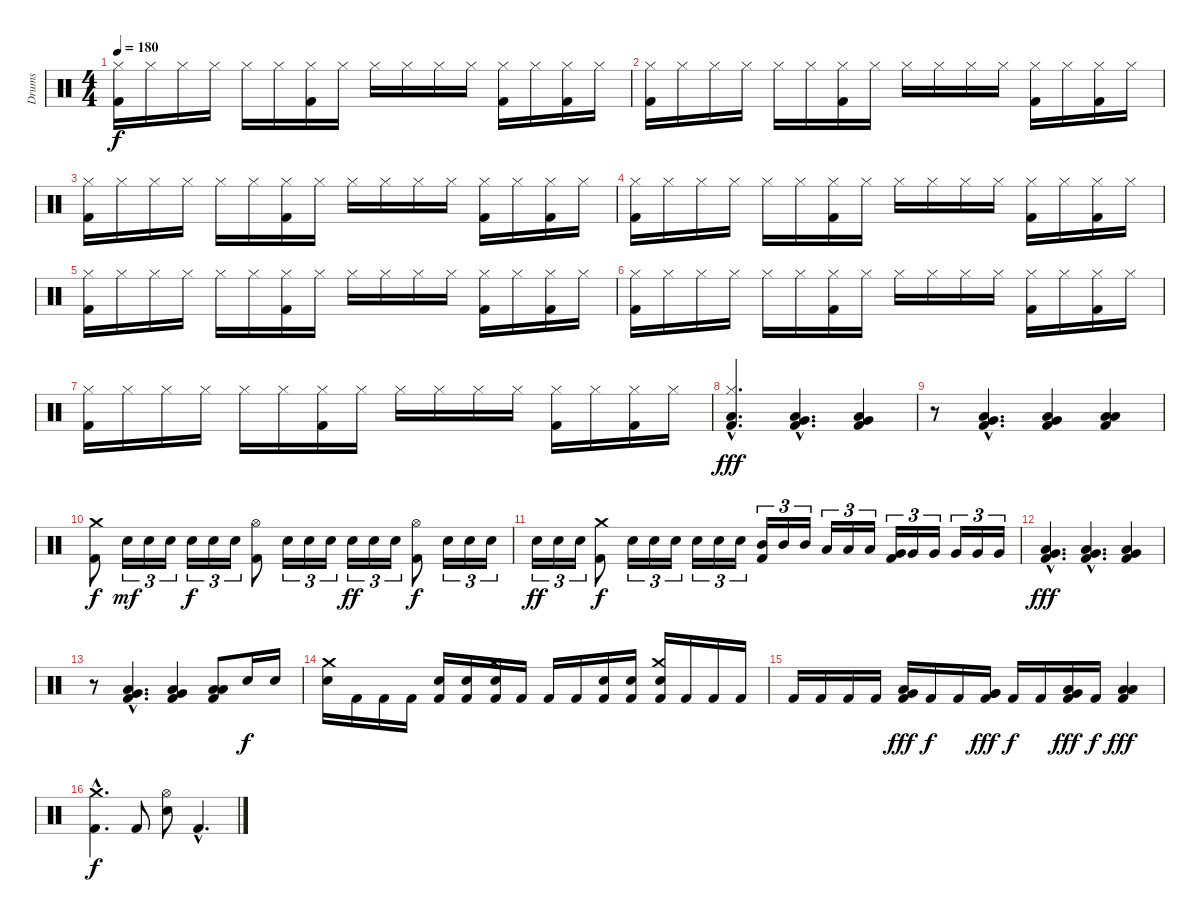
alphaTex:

\track ("Drums" "Drums") {instrument percussion}
\staff {score}
\articulation defaults
\ts (4 4)
\tempo 180
\clef neutral
\ks c
("Kick (hit) 2" "Hi-Hat (closed)").16{dy f} "Hi-Hat (closed)".16 "Hi-Hat (closed)".16 "Hi-Hat (closed)".16 "Hi-Hat (closed)".16 "Hi-Hat (closed)".16 ("Kick (hit) 2" "Hi-Hat (closed)").16 "Hi-Hat (closed)".16 "Hi-Hat (closed)".16 "Hi-Hat (closed)".16 "Hi-Hat (closed)".16 "Hi-Hat (closed)".16 ("Kick (hit) 2" "Hi-Hat (closed)").16 "Hi-Hat (closed)".16 ("Kick (hit) 2" "Hi-Hat (closed)").16 "Hi-Hat (closed)".16 |
("Kick (hit) 2" "Hi-Hat (closed)").16 "Hi-Hat (closed)".16 "Hi-Hat (closed)".16 "Hi-Hat (closed)".16 "Hi-Hat (closed)".16 "Hi-Hat (closed)".16 ("Kick (hit) 2" "Hi-Hat (closed)").16 "Hi-Hat (closed)".16 "Hi-Hat (closed)".16 "Hi-Hat (closed)".16 "Hi-Hat (closed)".16 "Hi-Hat (closed)".16 ("Kick (hit) 2" "Hi-Hat (closed)").16 "Hi-Hat (closed)".16 ("Kick (hit) 2" "Hi-Hat (closed)").16 "Hi-Hat (closed)".16 |
("Kick (hit) 2" "Hi-Hat (closed)").16 "Hi-Hat (closed)".16 "Hi-Hat (closed)".16 "Hi-Hat (closed)".16 "Hi-Hat (closed)".16 "Hi-Hat (closed)".16 ("Kick (hit) 2" "Hi-Hat (closed)").16 "Hi-Hat (closed)".16 "Hi-Hat (closed)".16 "Hi-Hat (closed)".16 "Hi-Hat (closed)".16 "Hi-Hat (closed)".16 ("Kick (hit) 2" "Hi-Hat (closed)").16 "Hi-Hat (closed)".16 ("Kick (hit) 2" "Hi-Hat (closed)").16 "Hi-Hat (closed)".16 |
("Kick (hit) 2" "Hi-Hat (closed)").16 "Hi-Hat (closed)".16 "Hi-Hat (closed)".16 "Hi-Hat (closed)".16 "Hi-Hat (closed)".16 "Hi-Hat (closed)".16 ("Kick (hit) 2" "Hi-Hat (closed)").16 "Hi-Hat (closed)".16 "Hi-Hat (closed)".16 "Hi-Hat (closed)".16 "Hi-Hat (closed)".16 "Hi-Hat (closed)".16 ("Kick (hit) 2" "Hi-Hat (closed)").16 "Hi-Hat (closed)".16 ("Kick (hit) 2" "Hi-Hat (closed)").16 "Hi-Hat (closed)".16 |
("Kick (hit) 2" "Hi-Hat (closed)").16 "Hi-Hat (closed)".16 "Hi-Hat (closed)".16 "Hi-Hat (closed)".16 "Hi-Hat (closed)".16 "Hi-Hat (closed)".16 ("Kick (hit) 2" "Hi-Hat (closed)").16 "Hi-Hat (closed)".16 "Hi-Hat (closed)".16 "Hi-Hat (closed)".16 "Hi-Hat (closed)".16 "Hi-Hat (closed)".16 ("Kick (hit) 2" "Hi-Hat (closed)").16 "Hi-Hat (closed)".16 ("Kick (hit) 2" "Hi-Hat (closed)").16 "Hi-Hat (closed)".16 |
("Kick (hit) 2" "Hi-Hat (closed)").16 "Hi-Hat (closed)".16 "Hi-Hat (closed)".16 "Hi-Hat (closed)".16 "Hi-Hat (closed)".16 "Hi-Hat (closed)".16 ("Kick (hit) 2" "Hi-Hat (closed)").16 "Hi-Hat (closed)".16 "Hi-Hat (closed)".16 "Hi-Hat (closed)".16 "Hi-Hat (closed)".16 "Hi-Hat (closed)".16 ("Kick (hit) 2" "Hi-Hat (closed)").16 "Hi-Hat (closed)".16 ("Kick (hit) 2" "Hi-Hat (closed)").16 "Hi-Hat (closed)".16 |
("Kick (hit) 2" "Hi-Hat (closed)").16 "Hi-Hat (closed)".16 "Hi-Hat (closed)".16 "Hi-Hat (closed)".16 "Hi-Hat (closed)".16 "Hi-Hat (closed)".16 ("Kick (hit) 2" "Hi-Hat (closed)").16 "Hi-Hat (closed)".16 "Hi-Hat (closed)".16 "Hi-Hat (closed)".16 "Hi-Hat (closed)".16 "Hi-Hat (closed)".16 ("Kick (hit) 2" "Hi-Hat (closed)").16 "Hi-Hat (closed)".16 ("Kick (hit) 2" "Hi-Hat (closed)").16 "Hi-Hat (closed)".16 |
("Hi-Hat (closed)"{hac} "Kick (hit) 2"{hac} "Low Floor Tom (hit)"{hac}).4{d dy fff} ("Kick (hit) 2"{hac} "Low Floor Tom (hit)"{hac} "Very Low Tom (hit)"{hac}).4{d} ("Kick (hit) 2" "Low Floor Tom (hit)" "Very Low Tom (hit)").4 |
r.8 ("Kick (hit) 2"{hac} "Low Floor Tom (hit)"{hac} "Very Low Tom (hit)"{hac}).4{d} ("Kick (hit) 2" "Low Floor Tom (hit)" "Very Low Tom (hit)").4 ("Kick (hit) 2" "Low Floor Tom (hit)" "Low Tom (hit)").4 |
("Kick (hit) 2" "Crash medium (hit)").8{dy f} "Electric Snare (hit)".16{tu (3 2) dy mf} "Electric Snare (hit)".16{tu (3 2)} "Electric Snare (hit)".16{tu (3 2)} "Electric Snare (hit)".16{tu (3 2) dy f} "Electric Snare (hit)".16{tu (3 2)} "Electric Snare (hit)".16{tu (3 2)} ("Hi-Hat (open)" "Kick (hit) 2").8 "Electric Snare (hit)".16{tu (3 2)} "Electric Snare (hit)".16{tu (3 2)} "Electric Snare (hit)".16{tu (3 2)} "Electric Snare (hit)".16{tu (3 2) dy ff} "Electric Snare (hit)".16{tu (3 2)} "Electric Snare (hit)".16{tu (3 2)} ("Hi-Hat (open)" "Kick (hit) 2").8{dy f} "Electric Snare (hit)".16{tu (3 2)} "Electric Snare (hit)".16{tu (3 2)} "Electric Snare (hit)".16{tu (3 2)} |
"Electric Snare (hit)".16{tu (3 2) dy ff} "Electric Snare (hit)".16{tu (3 2)} "Electric Snare (hit)".16{tu (3 2)} ("Crash medium (hit)" "Kick (hit) 2").8{dy f} "Electric Snare (hit)".16{tu (3 2)} "Electric Snare (hit)".16{tu (3 2)} "Electric Snare (hit)".16{tu (3 2)} "Electric Snare (hit)".16{tu (3 2)} "Electric Snare (hit)".16{tu (3 2)} "Electric Snare (hit)".16{tu (3 2)} ("Kick (hit) 2" "Mid Tom (hit)").16{tu (3 2)} "Mid Tom (hit)".16{tu (3 2)} "Mid Tom (hit)".16{tu (3 2)} "Low Tom (hit)".16{tu (3 2)} "Low Tom (hit)".16{tu (3 2)} "Low Tom (hit)".16{tu (3 2)} ("Kick (hit) 2" "Very Low Tom (hit)").16{tu (3 2)} "Very Low Tom (hit)".16{tu (3 2)} "Very Low Tom (hit)".16{tu (3 2)} "Very Low Tom (hit)".16{tu (3 2)} "Very Low Tom (hit)".16{tu (3 2)} "Very Low Tom (hit)".16{tu (3 2)} |
("Very Low Tom (hit)"{hac} "Kick (hit) 2"{hac} "Low Floor Tom (hit)"{hac}).4{d dy fff} ("Kick (hit) 2"{hac} "Low Floor Tom (hit)"{hac} "Very Low Tom (hit)"{hac}).4{d} ("Kick (hit) 2" "Low Floor Tom (hit)" "Very Low Tom (hit)").4 |
r.8 ("Kick (hit) 2"{hac} "Low Floor Tom (hit)"{hac} "Very Low Tom (hit)"{hac}).4{d} ("Kick (hit) 2" "Low Floor Tom (hit)" "Very Low Tom (hit)").4 ("Kick (hit) 2" "Low Floor Tom (hit)" "Low Tom (hit)").8 "Electric Snare (hit)".16{dy f} "Electric Snare (hit)".16 |
("Electric Snare (hit)" "Crash medium (hit)").16 "Kick (hit) 2".16 "Kick (hit) 2".16 "Kick (hit) 2".16 ("Electric Snare (hit)" "Kick (hit) 2").16 ("Electric Snare (hit)" "Kick (hit) 2").16 ("Electric Snare (hit)" "Kick (hit) 2" "Crash medium (hit)").16 "Kick (hit) 2".16 "Kick (hit) 2".16 "Kick (hit) 2".16 ("Electric Snare (hit)" "Kick (hit) 2").16 ("Electric Snare (hit)" "Kick (hit) 2").16 ("Crash medium (hit)" "Kick (hit) 2" "Electric Snare (hit)").16 "Kick (hit) 2".16 "Kick (hit) 2".16 "Kick (hit) 2".16 |
"Kick (hit) 2".16 "Kick (hit) 2".16 "Kick (hit) 2".16 "Kick (hit) 2".16 ("Low Tom (hit)" "Very Low Tom (hit)" "Kick (hit) 2").16{dy fff} "Kick (hit) 2".16{dy f} "Kick (hit) 2".16 ("Very Low Tom (hit)" "Very Low Tom (hit)" "Kick (hit) 2").16{dy fff} "Kick (hit) 2".16{dy f} "Kick (hit) 2".16 ("Low Floor Tom (hit)" "Very Low Tom (hit)" "Kick (hit) 2").16{dy fff} "Kick (hit) 2".16{dy f} ("Low Floor Tom (hit)" "Low Floor Tom (hit)" "Kick (hit) 2").4{dy fff} |
("Kick (hit) 2"{hac} "Crash medium (hit)"{hac}).4{d dy f} "Kick (hit) 2".8 ("Electric Snare (hit)" "Hi-Hat (open)").8 "Kick (hit) 2"{hac}.4{d}
